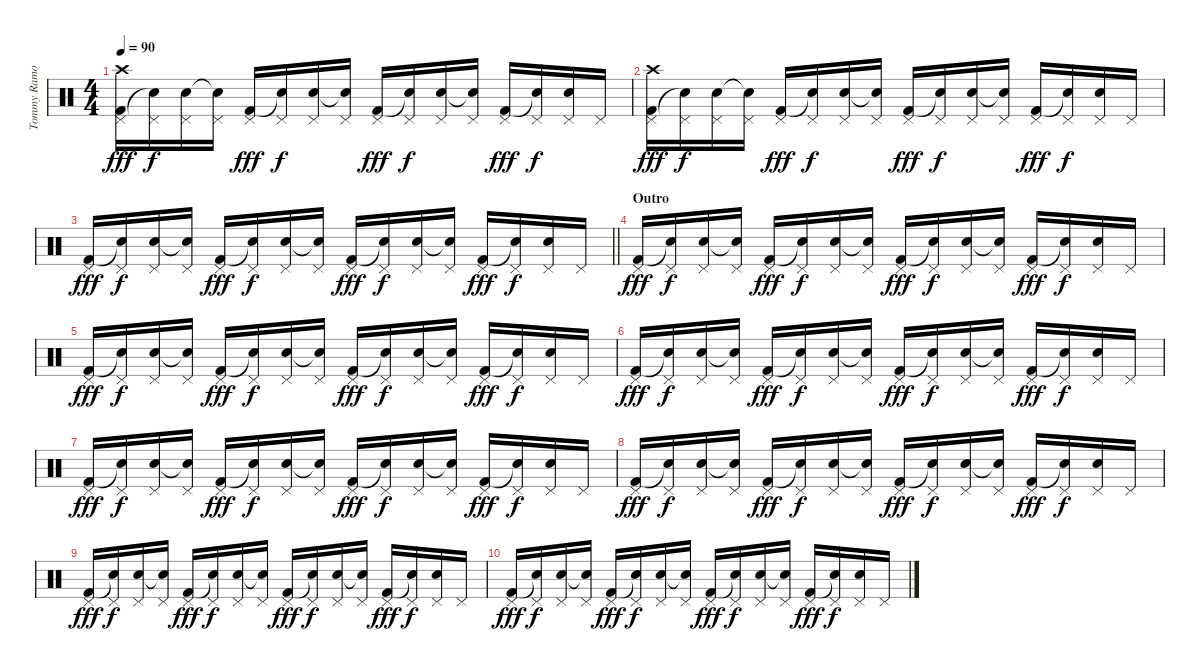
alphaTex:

\track ("Tommy Ramone - Drums" "Tommy Ramo") {instrument percussion}
\staff {score}
\articulation defaults
\ts (4 4)
\tempo 90
\clef neutral
\ks c
("Crash high (hit)" "Pedal Hi-Hat (hit)" "Kick (hit) 2").16{dy fff} ("Pedal Hi-Hat (hit)" "Snare (hit)"{t}).16{dy f} ("Pedal Hi-Hat (hit)" "Electric Snare (hit)").16 ("Pedal Hi-Hat (hit)" "Snare (hit)"{t}).16 ("Pedal Hi-Hat (hit)" "Kick (hit) 2").16{dy fff} ("Pedal Hi-Hat (hit)" "Snare (hit)"{t}).16{dy f} ("Pedal Hi-Hat (hit)" "Electric Snare (hit)").16 ("Pedal Hi-Hat (hit)" "Snare (hit)"{t}).16 ("Pedal Hi-Hat (hit)" "Kick (hit) 2").16{dy fff} ("Pedal Hi-Hat (hit)" "Snare (hit)"{t}).16{dy f} ("Pedal Hi-Hat (hit)" "Electric Snare (hit)").16 ("Pedal Hi-Hat (hit)" "Snare (hit)"{t}).16 ("Pedal Hi-Hat (hit)" "Kick (hit) 2").16{dy fff} ("Pedal Hi-Hat (hit)" "Snare (hit)"{t}).16{dy f} ("Pedal Hi-Hat (hit)" "Electric Snare (hit)").16 "Pedal Hi-Hat (hit)".16 |
("Crash high (hit)" "Pedal Hi-Hat (hit)" "Kick (hit) 2").16{dy fff} ("Pedal Hi-Hat (hit)" "Snare (hit)"{t}).16{dy f} ("Pedal Hi-Hat (hit)" "Electric Snare (hit)").16 ("Pedal Hi-Hat (hit)" "Snare (hit)"{t}).16 ("Pedal Hi-Hat (hit)" "Kick (hit) 2").16{dy fff} ("Pedal Hi-Hat (hit)" "Snare (hit)"{t}).16{dy f} ("Pedal Hi-Hat (hit)" "Electric Snare (hit)").16 ("Pedal Hi-Hat (hit)" "Snare (hit)"{t}).16 ("Pedal Hi-Hat (hit)" "Kick (hit) 2").16{dy fff} ("Pedal Hi-Hat (hit)" "Snare (hit)"{t}).16{dy f} ("Pedal Hi-Hat (hit)" "Electric Snare (hit)").16 ("Pedal Hi-Hat (hit)" "Snare (hit)"{t}).16 ("Pedal Hi-Hat (hit)" "Kick (hit) 2").16{dy fff} ("Pedal Hi-Hat (hit)" "Snare (hit)"{t}).16{dy f} ("Pedal Hi-Hat (hit)" "Electric Snare (hit)").16 "Pedal Hi-Hat (hit)".16 |
\barLineRight lightlight
("Pedal Hi-Hat (hit)" "Kick (hit) 2").16{dy fff} ("Pedal Hi-Hat (hit)" "Snare (hit)"{t}).16{dy f} ("Pedal Hi-Hat (hit)" "Electric Snare (hit)").16 ("Pedal Hi-Hat (hit)" "Snare (hit)"{t}).16 ("Pedal Hi-Hat (hit)" "Kick (hit) 2").16{dy fff} ("Pedal Hi-Hat (hit)" "Snare (hit)"{t}).16{dy f} ("Pedal Hi-Hat (hit)" "Electric Snare (hit)").16 ("Pedal Hi-Hat (hit)" "Snare (hit)"{t}).16 ("Pedal Hi-Hat (hit)" "Kick (hit) 2").16{dy fff} ("Pedal Hi-Hat (hit)" "Snare (hit)"{t}).16{dy f} ("Pedal Hi-Hat (hit)" "Electric Snare (hit)").16 ("Pedal Hi-Hat (hit)" "Snare (hit)"{t}).16 ("Pedal Hi-Hat (hit)" "Kick (hit) 2").16{dy fff} ("Pedal Hi-Hat (hit)" "Snare (hit)"{t}).16{dy f} ("Pedal Hi-Hat (hit)" "Electric Snare (hit)").16 "Pedal Hi-Hat (hit)".16 |
\section ("" "Outro")
("Pedal Hi-Hat (hit)" "Kick (hit) 2").16{dy fff} ("Pedal Hi-Hat (hit)" "Snare (hit)"{t}).16{dy f} ("Pedal Hi-Hat (hit)" "Electric Snare (hit)").16 ("Pedal Hi-Hat (hit)" "Snare (hit)"{t}).16 ("Pedal Hi-Hat (hit)" "Kick (hit) 2").16{dy fff} ("Pedal Hi-Hat (hit)" "Snare (hit)"{t}).16{dy f} ("Pedal Hi-Hat (hit)" "Electric Snare (hit)").16 ("Pedal Hi-Hat (hit)" "Snare (hit)"{t}).16 ("Pedal Hi-Hat (hit)" "Kick (hit) 2").16{dy fff} ("Pedal Hi-Hat (hit)" "Snare (hit)"{t}).16{dy f} ("Pedal Hi-Hat (hit)" "Electric Snare (hit)").16 ("Pedal Hi-Hat (hit)" "Snare (hit)"{t}).16 ("Pedal Hi-Hat (hit)" "Kick (hit) 2").16{dy fff} ("Pedal Hi-Hat (hit)" "Snare (hit)"{t}).16{dy f} ("Pedal Hi-Hat (hit)" "Electric Snare (hit)").16 "Pedal Hi-Hat (hit)".16 |
("Pedal Hi-Hat (hit)" "Kick (hit) 2").16{dy fff} ("Pedal Hi-Hat (hit)" "Snare (hit)"{t}).16{dy f} ("Pedal Hi-Hat (hit)" "Electric Snare (hit)").16 ("Pedal Hi-Hat (hit)" "Snare (hit)"{t}).16 ("Pedal Hi-Hat (hit)" "Kick (hit) 2").16{dy fff} ("Pedal Hi-Hat (hit)" "Snare (hit)"{t}).16{dy f} ("Pedal Hi-Hat (hit)" "Electric Snare (hit)").16 ("Pedal Hi-Hat (hit)" "Snare (hit)"{t}).16 ("Pedal Hi-Hat (hit)" "Kick (hit) 2").16{dy fff} ("Pedal Hi-Hat (hit)" "Snare (hit)"{t}).16{dy f} ("Pedal Hi-Hat (hit)" "Electric Snare (hit)").16 ("Pedal Hi-Hat (hit)" "Snare (hit)"{t}).16 ("Pedal Hi-Hat (hit)" "Kick (hit) 2").16{dy fff} ("Pedal Hi-Hat (hit)" "Snare (hit)"{t}).16{dy f} ("Pedal Hi-Hat (hit)" "Electric Snare (hit)").16 "Pedal Hi-Hat (hit)".16 |
("Pedal Hi-Hat (hit)" "Kick (hit) 2").16{dy fff} ("Pedal Hi-Hat (hit)" "Snare (hit)"{t}).16{dy f} ("Pedal Hi-Hat (hit)" "Electric Snare (hit)").16 ("Pedal Hi-Hat (hit)" "Snare (hit)"{t}).16 ("Pedal Hi-Hat (hit)" "Kick (hit) 2").16{dy fff} ("Pedal Hi-Hat (hit)" "Snare (hit)"{t}).16{dy f} ("Pedal Hi-Hat (hit)" "Electric Snare (hit)").16 ("Pedal Hi-Hat (hit)" "Snare (hit)"{t}).16 ("Pedal Hi-Hat (hit)" "Kick (hit) 2").16{dy fff} ("Pedal Hi-Hat (hit)" "Snare (hit)"{t}).16{dy f} ("Pedal Hi-Hat (hit)" "Electric Snare (hit)").16 ("Pedal Hi-Hat (hit)" "Snare (hit)"{t}).16 ("Pedal Hi-Hat (hit)" "Kick (hit) 2").16{dy fff} ("Pedal Hi-Hat (hit)" "Snare (hit)"{t}).16{dy f} ("Pedal Hi-Hat (hit)" "Electric Snare (hit)").16 "Pedal Hi-Hat (hit)".16 |
("Pedal Hi-Hat (hit)" "Kick (hit) 2").16{dy fff} ("Pedal Hi-Hat (hit)" "Snare (hit)"{t}).16{dy f} ("Pedal Hi-Hat (hit)" "Electric Snare (hit)").16 ("Pedal Hi-Hat (hit)" "Snare (hit)"{t}).16 ("Pedal Hi-Hat (hit)" "Kick (hit) 2").16{dy fff} ("Pedal Hi-Hat (hit)" "Snare (hit)"{t}).16{dy f} ("Pedal Hi-Hat (hit)" "Electric Snare (hit)").16 ("Pedal Hi-Hat (hit)" "Snare (hit)"{t}).16 ("Pedal Hi-Hat (hit)" "Kick (hit) 2").16{dy fff} ("Pedal Hi-Hat (hit)" "Snare (hit)"{t}).16{dy f} ("Pedal Hi-Hat (hit)" "Electric Snare (hit)").16 ("Pedal Hi-Hat (hit)" "Snare (hit)"{t}).16 ("Pedal Hi-Hat (hit)" "Kick (hit) 2").16{dy fff} ("Pedal Hi-Hat (hit)" "Snare (hit)"{t}).16{dy f} ("Pedal Hi-Hat (hit)" "Electric Snare (hit)").16 "Pedal Hi-Hat (hit)".16 |
("Pedal Hi-Hat (hit)" "Kick (hit) 2").16{dy fff} ("Pedal Hi-Hat (hit)" "Snare (hit)"{t}).16{dy f} ("Pedal Hi-Hat (hit)" "Electric Snare (hit)").16 ("Pedal Hi-Hat (hit)" "Snare (hit)"{t}).16 ("Pedal Hi-Hat (hit)" "Kick (hit) 2").16{dy fff} ("Pedal Hi-Hat (hit)" "Snare (hit)"{t}).16{dy f} ("Pedal Hi-Hat (hit)" "Electric Snare (hit)").16 ("Pedal Hi-Hat (hit)" "Snare (hit)"{t}).16 ("Pedal Hi-Hat (hit)" "Kick (hit) 2").16{dy fff} ("Pedal Hi-Hat (hit)" "Snare (hit)"{t}).16{dy f} ("Pedal Hi-Hat (hit)" "Electric Snare (hit)").16 ("Pedal Hi-Hat (hit)" "Snare (hit)"{t}).16 ("Pedal Hi-Hat (hit)" "Kick (hit) 2").16{dy fff} ("Pedal Hi-Hat (hit)" "Snare (hit)"{t}).16{dy f} ("Pedal Hi-Hat (hit)" "Electric Snare (hit)").16 "Pedal Hi-Hat (hit)".16 |
("Pedal Hi-Hat (hit)" "Kick (hit) 2").16{dy fff} ("Pedal Hi-Hat (hit)" "Snare (hit)"{t}).16{dy f} ("Pedal Hi-Hat (hit)" "Electric Snare (hit)").16 ("Pedal Hi-Hat (hit)" "Snare (hit)"{t}).16 ("Pedal Hi-Hat (hit)" "Kick (hit) 2").16{dy fff} ("Pedal Hi-Hat (hit)" "Snare (hit)"{t}).16{dy f} ("Pedal Hi-Hat (hit)" "Electric Snare (hit)").16 ("Pedal Hi-Hat (hit)" "Snare (hit)"{t}).16 ("Pedal Hi-Hat (hit)" "Kick (hit) 2").16{dy fff} ("Pedal Hi-Hat (hit)" "Snare (hit)"{t}).16{dy f} ("Pedal Hi-Hat (hit)" "Electric Snare (hit)").16 ("Pedal Hi-Hat (hit)" "Snare (hit)"{t}).16 ("Pedal Hi-Hat (hit)" "Kick (hit) 2").16{dy fff} ("Pedal Hi-Hat (hit)" "Snare (hit)"{t}).16{dy f} ("Pedal Hi-Hat (hit)" "Electric Snare (hit)").16 "Pedal Hi-Hat (hit)".16 |
("Pedal Hi-Hat (hit)" "Kick (hit) 2").16{dy fff} ("Pedal Hi-Hat (hit)" "Snare (hit)"{t}).16{dy f} ("Pedal Hi-Hat (hit)" "Electric Snare (hit)").16 ("Pedal Hi-Hat (hit)" "Snare (hit)"{t}).16 ("Pedal Hi-Hat (hit)" "Kick (hit) 2").16{dy fff} ("Pedal Hi-Hat (hit)" "Snare (hit)"{t}).16{dy f} ("Pedal Hi-Hat (hit)" "Electric Snare (hit)").16 ("Pedal Hi-Hat (hit)" "Snare (hit)"{t}).16 ("Pedal Hi-Hat (hit)" "Kick (hit) 2").16{dy fff} ("Pedal Hi-Hat (hit)" "Snare (hit)"{t}).16{dy f} ("Pedal Hi-Hat (hit)" "Electric Snare (hit)").16 ("Pedal Hi-Hat (hit)" "Snare (hit)"{t}).16 ("Pedal Hi-Hat (hit)" "Kick (hit) 2").16{dy fff} ("Pedal Hi-Hat (hit)" "Snare (hit)"{t}).16{dy f} ("Pedal Hi-Hat (hit)" "Electric Snare (hit)").16 "Pedal Hi-Hat (hit)".16
